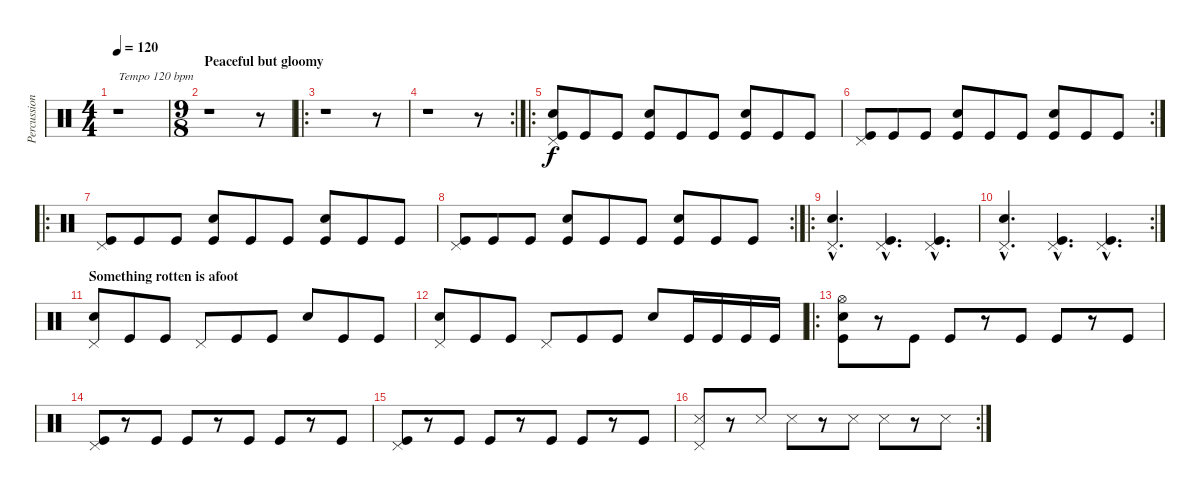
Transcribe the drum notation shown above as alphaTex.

\track ("Percussion" "Percussion") {instrument percussion}
\staff {score}
\articulation defaults
\ts (4 4)
\tempo 120
\clef neutral
\ks c
r.1{txt "Tempo 120 bpm" dy f} |
\ts (9 8)
\section ("" "Peaceful but gloomy")
r.1 r.8 |
\ro
r.1 r.8 |
\rc 2
r.1 r.8 |
\ro
("Pedal Hi-Hat (hit)" "Snare (hit) 2" "Kick (hit)").8 "Kick (hit)".8 "Kick (hit)".8 ("Snare (hit) 2" "Kick (hit)").8 "Kick (hit)".8 "Kick (hit)".8 ("Snare (hit) 2" "Kick (hit)").8 "Kick (hit)".8 "Kick (hit)".8 |
\rc 2
("Pedal Hi-Hat (hit)" "Kick (hit)").8 "Kick (hit)".8 "Kick (hit)".8 ("Snare (hit) 2" "Kick (hit)").8 "Kick (hit)".8 "Kick (hit)".8 ("Snare (hit) 2" "Kick (hit)").8 "Kick (hit)".8 "Kick (hit)".8 |
\ro
("Pedal Hi-Hat (hit)" "Kick (hit)").8 "Kick (hit)".8 "Kick (hit)".8 ("Snare (hit) 2" "Kick (hit)").8 "Kick (hit)".8 "Kick (hit)".8 ("Snare (hit) 2" "Kick (hit)").8 "Kick (hit)".8 "Kick (hit)".8 |
\rc 2
("Pedal Hi-Hat (hit)" "Kick (hit)").8 "Kick (hit)".8 "Kick (hit)".8 ("Snare (hit) 2" "Kick (hit)").8 "Kick (hit)".8 "Kick (hit)".8 ("Snare (hit) 2" "Kick (hit)").8 "Kick (hit)".8 "Kick (hit)".8 |
\ro
("Pedal Hi-Hat (hit)"{hac} "Snare (hit) 2"{hac}).4{d} ("Pedal Hi-Hat (hit)"{hac} "Kick (hit)"{hac}).4{d} ("Pedal Hi-Hat (hit)"{hac} "Kick (hit)"{hac}).4{d} |
\rc 2
("Pedal Hi-Hat (hit)"{hac} "Snare (hit) 2"{hac}).4{d} ("Pedal Hi-Hat (hit)"{hac} "Kick (hit)"{hac}).4{d} ("Pedal Hi-Hat (hit)"{hac} "Kick (hit)"{hac}).4{d} |
\section ("" "Something rotten is afoot")
("Pedal Hi-Hat (hit)" "Snare (hit) 2").8 "Kick (hit)".8 "Kick (hit)".8 "Pedal Hi-Hat (hit)".8 "Kick (hit)".8 "Kick (hit)".8 "Snare (hit) 2".8 "Kick (hit)".8 "Kick (hit)".8 |
("Pedal Hi-Hat (hit)" "Snare (hit) 2").8 "Kick (hit)".8 "Kick (hit)".8 "Pedal Hi-Hat (hit)".8 "Kick (hit)".8 "Kick (hit)".8 "Snare (hit) 2".8 "Kick (hit)".16 "Kick (hit)".16 "Kick (hit)".16 "Kick (hit)".16 |
\ro
("Hi-Hat (open)" "Snare (hit) 2" "Kick (hit)").8 r.8 "Kick (hit)".8 "Kick (hit)".8 r.8 "Kick (hit)".8 "Kick (hit)".8 r.8 "Kick (hit)".8 |
("Pedal Hi-Hat (hit)" "Kick (hit)").8 r.8 "Kick (hit)".8 "Kick (hit)".8 r.8 "Kick (hit)".8 "Kick (hit)".8 r.8 "Kick (hit)".8 |
("Pedal Hi-Hat (hit)" "Kick (hit)").8 r.8 "Kick (hit)".8 "Kick (hit)".8 r.8 "Kick (hit)".8 "Kick (hit)".8 r.8 "Kick (hit)".8 |
\rc 2
("Pedal Hi-Hat (hit)" "Snare (side stick) 3").8 r.8 "Snare (side stick) 3".8 "Snare (side stick) 3".8 r.8 "Snare (side stick) 3".8 "Snare (side stick) 3".8 r.8 "Snare (side stick) 3".8
